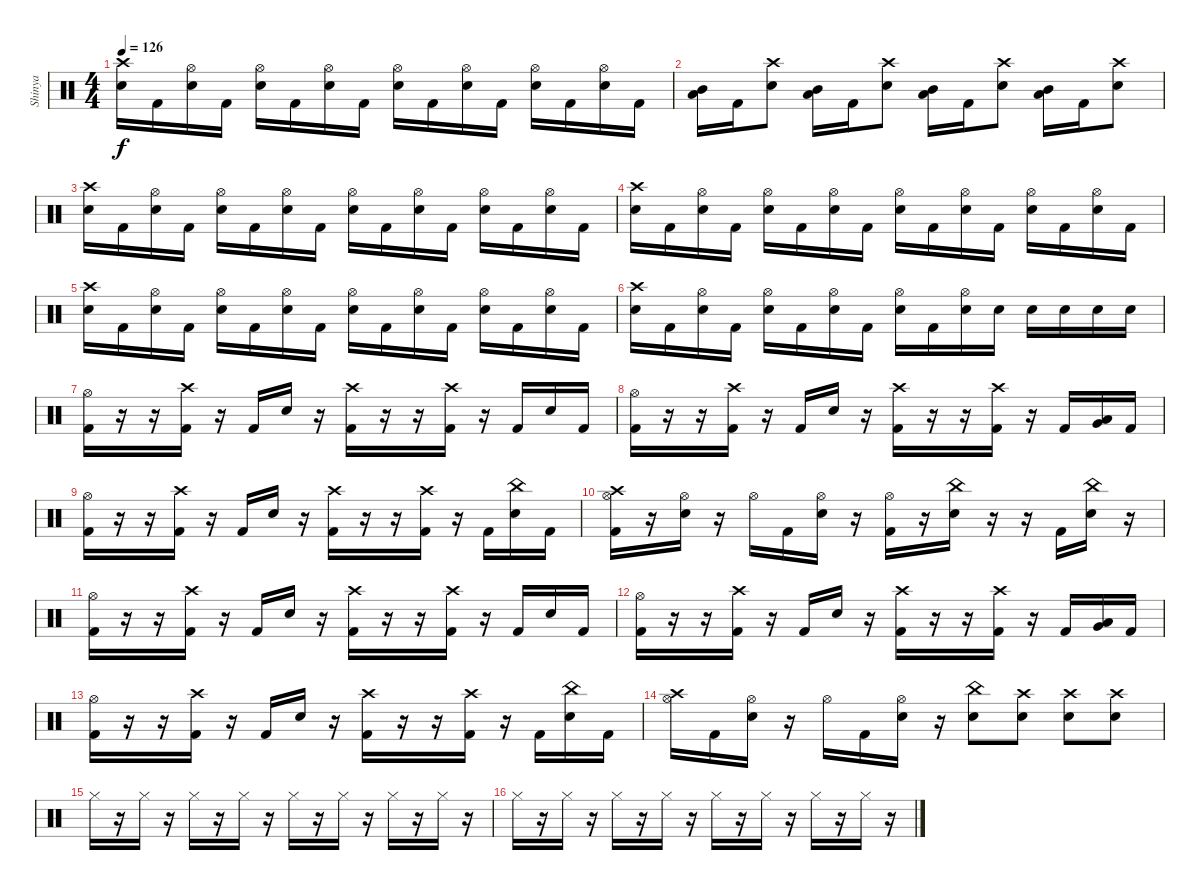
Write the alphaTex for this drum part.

\track ("Shinya" "Shinya") {instrument percussion}
\staff {score}
\articulation defaults
\ts (4 4)
\tempo 126
\clef neutral
\ks c
("Crash high (hit)" "Electric Snare (hit)").16{dy f} "Kick (hit) 2".16 ("Hi-Hat (open)" "Electric Snare (hit)").16 "Kick (hit) 2".16 ("Hi-Hat (open)" "Electric Snare (hit)").16 "Kick (hit) 2".16 ("Hi-Hat (open)" "Electric Snare (hit)").16 "Kick (hit) 2".16 ("Hi-Hat (open)" "Electric Snare (hit)").16 "Kick (hit) 2".16 ("Hi-Hat (open)" "Electric Snare (hit)").16 "Kick (hit) 2".16 ("Hi-Hat (open)" "Electric Snare (hit)").16 "Kick (hit) 2".16 ("Hi-Hat (open)" "Electric Snare (hit)").16 "Kick (hit) 2".16 |
("Low Tom (hit)" "Mid Tom (hit)").16 "Kick (hit) 2".16 ("Crash high (hit)" "Electric Snare (hit)").8 ("Low Tom (hit)" "Mid Tom (hit)").16 "Kick (hit) 2".16 ("Crash high (hit)" "Electric Snare (hit)").8 ("Low Tom (hit)" "Mid Tom (hit)").16 "Kick (hit) 2".16 ("Crash high (hit)" "Electric Snare (hit)").8 ("Low Tom (hit)" "Mid Tom (hit)").16 "Kick (hit) 2".16 ("Crash high (hit)" "Electric Snare (hit)").8 |
("Crash high (hit)" "Electric Snare (hit)").16 "Kick (hit) 2".16 ("Hi-Hat (open)" "Electric Snare (hit)").16 "Kick (hit) 2".16 ("Hi-Hat (open)" "Electric Snare (hit)").16 "Kick (hit) 2".16 ("Hi-Hat (open)" "Electric Snare (hit)").16 "Kick (hit) 2".16 ("Hi-Hat (open)" "Electric Snare (hit)").16 "Kick (hit) 2".16 ("Hi-Hat (open)" "Electric Snare (hit)").16 "Kick (hit) 2".16 ("Hi-Hat (open)" "Electric Snare (hit)").16 "Kick (hit) 2".16 ("Hi-Hat (open)" "Electric Snare (hit)").16 "Kick (hit) 2".16 |
("Crash high (hit)" "Electric Snare (hit)").16 "Kick (hit) 2".16 ("Hi-Hat (open)" "Electric Snare (hit)").16 "Kick (hit) 2".16 ("Hi-Hat (open)" "Electric Snare (hit)").16 "Kick (hit) 2".16 ("Hi-Hat (open)" "Electric Snare (hit)").16 "Kick (hit) 2".16 ("Hi-Hat (open)" "Electric Snare (hit)").16 "Kick (hit) 2".16 ("Hi-Hat (open)" "Electric Snare (hit)").16 "Kick (hit) 2".16 ("Hi-Hat (open)" "Electric Snare (hit)").16 "Kick (hit) 2".16 ("Hi-Hat (open)" "Electric Snare (hit)").16 "Kick (hit) 2".16 |
("Crash high (hit)" "Electric Snare (hit)").16 "Kick (hit) 2".16 ("Hi-Hat (open)" "Electric Snare (hit)").16 "Kick (hit) 2".16 ("Hi-Hat (open)" "Electric Snare (hit)").16 "Kick (hit) 2".16 ("Hi-Hat (open)" "Electric Snare (hit)").16 "Kick (hit) 2".16 ("Hi-Hat (open)" "Electric Snare (hit)").16 "Kick (hit) 2".16 ("Hi-Hat (open)" "Electric Snare (hit)").16 "Kick (hit) 2".16 ("Hi-Hat (open)" "Electric Snare (hit)").16 "Kick (hit) 2".16 ("Hi-Hat (open)" "Electric Snare (hit)").16 "Kick (hit) 2".16 |
("Crash high (hit)" "Electric Snare (hit)").16 "Kick (hit) 2".16 ("Hi-Hat (open)" "Electric Snare (hit)").16 "Kick (hit) 2".16 ("Hi-Hat (open)" "Electric Snare (hit)").16 "Kick (hit) 2".16 ("Hi-Hat (open)" "Electric Snare (hit)").16 "Kick (hit) 2".16 ("Hi-Hat (open)" "Electric Snare (hit)").16 "Kick (hit) 2".16 ("Hi-Hat (open)" "Electric Snare (hit)").16 "Electric Snare (hit)".16 "Electric Snare (hit)".16 "Electric Snare (hit)".16 "Electric Snare (hit)".16 "Electric Snare (hit)".16 |
("Hi-Hat (open)" "Kick (hit) 2").16 r.16 r.16 ("Crash high (hit)" "Kick (hit) 2").16 r.16 "Kick (hit) 2".16 "Electric Snare (hit)".16 r.16 ("Crash high (hit)" "Kick (hit) 2").16 r.16 r.16 ("Crash high (hit)" "Kick (hit) 2").16 r.16 "Kick (hit) 2".16 "Electric Snare (hit)".16 "Kick (hit) 2"{x}.16 |
("Hi-Hat (open)" "Kick (hit) 2").16 r.16 r.16 ("Crash high (hit)" "Kick (hit) 2").16 r.16 "Kick (hit) 2".16 "Electric Snare (hit)".16 r.16 ("Crash high (hit)" "Kick (hit) 2").16 r.16 r.16 ("Crash high (hit)" "Kick (hit) 2").16 r.16 "Kick (hit) 2".16 ("Low Floor Tom (hit)" "Very Low Tom (hit)").16 "Kick (hit) 2"{x}.16 |
("Hi-Hat (open)" "Kick (hit) 2").16 r.16 r.16 ("Crash high (hit)" "Kick (hit) 2").16 r.16 "Kick (hit) 2".16 "Electric Snare (hit)".16 r.16 ("Crash high (hit)" "Kick (hit) 2").16 r.16 r.16 ("Crash high (hit)" "Kick (hit) 2").16 r.16 "Kick (hit) 2".16 ("Electric Snare (hit)" "China (hit)").16 "Kick (hit) 2"{x}.16 |
("Hi-Hat (open)" "Crash high (hit)" "Kick (hit) 2").16 r.16 ("Hi-Hat (open)" "Electric Snare (hit)").16 r.16 "Hi-Hat (open)".16 "Kick (hit) 2".16 ("Hi-Hat (open)" "Electric Snare (hit)").16 r.16 ("Hi-Hat (open)" "Kick (hit) 2").16 r.16 ("China (hit)" "Electric Snare (hit)").16 r.16 r.16 "Kick (hit) 2".16 ("China (hit)" "Electric Snare (hit)").16 r.16 |
("Hi-Hat (open)" "Kick (hit) 2").16 r.16 r.16 ("Crash high (hit)" "Kick (hit) 2").16 r.16 "Kick (hit) 2".16 "Electric Snare (hit)".16 r.16 ("Crash high (hit)" "Kick (hit) 2").16 r.16 r.16 ("Crash high (hit)" "Kick (hit) 2").16 r.16 "Kick (hit) 2".16 "Electric Snare (hit)".16 "Kick (hit) 2"{x}.16 |
("Hi-Hat (open)" "Kick (hit) 2").16 r.16 r.16 ("Crash high (hit)" "Kick (hit) 2").16 r.16 "Kick (hit) 2".16 "Electric Snare (hit)".16 r.16 ("Crash high (hit)" "Kick (hit) 2").16 r.16 r.16 ("Crash high (hit)" "Kick (hit) 2").16 r.16 "Kick (hit) 2".16 ("Low Floor Tom (hit)" "Very Low Tom (hit)").16 "Kick (hit) 2"{x}.16 |
("Hi-Hat (open)" "Kick (hit) 2").16 r.16 r.16 ("Crash high (hit)" "Kick (hit) 2").16 r.16 "Kick (hit) 2".16 "Electric Snare (hit)".16 r.16 ("Crash high (hit)" "Kick (hit) 2").16 r.16 r.16 ("Crash high (hit)" "Kick (hit) 2").16 r.16 "Kick (hit) 2".16 ("Electric Snare (hit)" "China (hit)").16 "Kick (hit) 2"{x}.16 |
("Hi-Hat (open)" "Crash high (hit)").16 "Kick (hit) 2".16 ("Hi-Hat (open)" "Electric Snare (hit)").16 r.16 "Hi-Hat (open)".16 "Kick (hit) 2".16 ("Hi-Hat (open)" "Electric Snare (hit)").16 r.16 ("China (hit)" "Electric Snare (hit)").8 ("Crash high (hit)" "Electric Snare (hit)").8 ("Crash high (hit)" "Electric Snare (hit)").8 ("Crash high (hit)" "Electric Snare (hit)").8 |
"Hi-Hat (closed)".16 r.16 "Hi-Hat (closed)".16 r.16 "Hi-Hat (closed)".16 r.16 "Hi-Hat (closed)".16 r.16 "Hi-Hat (closed)".16 r.16 "Hi-Hat (closed)".16 r.16 "Hi-Hat (closed)".16 r.16 "Hi-Hat (closed)".16 r.16 |
"Hi-Hat (closed)".16 r.16 "Hi-Hat (closed)".16 r.16 "Hi-Hat (closed)".16 r.16 "Hi-Hat (closed)".16 r.16 "Hi-Hat (closed)".16 r.16 "Hi-Hat (closed)".16 r.16 "Hi-Hat (closed)".16 r.16 "Hi-Hat (closed)".16 r.16
